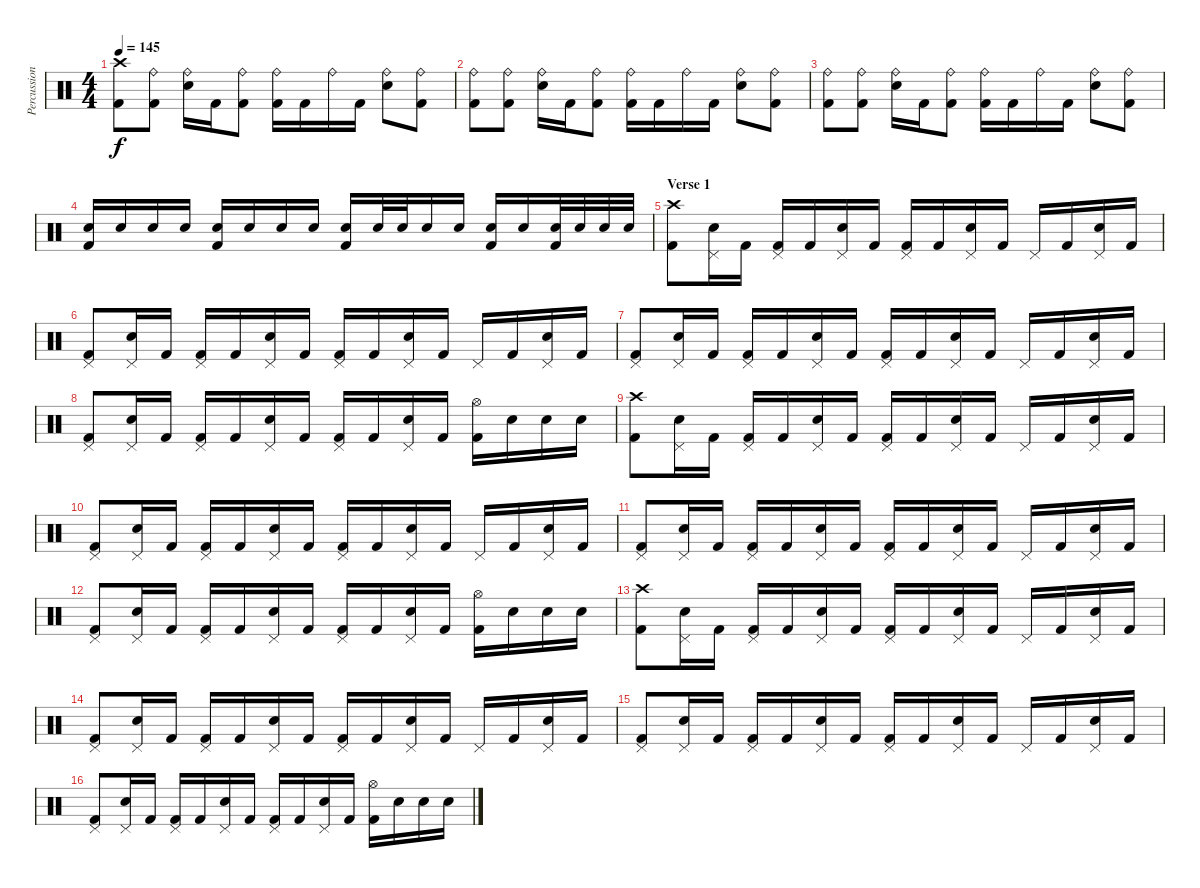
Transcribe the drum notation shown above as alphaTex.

\track ("Percussion" "Percussion") {instrument percussion}
\staff {score}
\articulation defaults
\ts (4 4)
\tempo 145
\clef neutral
\ks c
("Kick (hit) 2" "Crash high (hit)").8{dy f} ("Kick (hit) 2" "Ride (bell)").8 ("Electric Snare (hit)" "Ride (bell)").16 "Kick (hit) 2".16 ("Kick (hit) 2" "Ride (bell)").8 ("Kick (hit) 2" "Ride (bell)").16 "Kick (hit) 2".16 "Ride (bell)".16 "Kick (hit) 2".16 ("Electric Snare (hit)" "Ride (bell)").8 ("Kick (hit) 2" "Ride (bell)").8 |
("Kick (hit) 2" "Ride (bell)").8 ("Kick (hit) 2" "Ride (bell)").8 ("Electric Snare (hit)" "Ride (bell)").16 "Kick (hit) 2".16 ("Kick (hit) 2" "Ride (bell)").8 ("Kick (hit) 2" "Ride (bell)").16 "Kick (hit) 2".16 "Ride (bell)".16 "Kick (hit) 2".16 ("Electric Snare (hit)" "Ride (bell)").8 ("Kick (hit) 2" "Ride (bell)").8 |
("Kick (hit) 2" "Ride (bell)").8 ("Kick (hit) 2" "Ride (bell)").8 ("Electric Snare (hit)" "Ride (bell)").16 "Kick (hit) 2".16 ("Kick (hit) 2" "Ride (bell)").8 ("Kick (hit) 2" "Ride (bell)").16 "Kick (hit) 2".16 "Ride (bell)".16 "Kick (hit) 2".16 ("Electric Snare (hit)" "Ride (bell)").8 ("Kick (hit) 2" "Ride (bell)").8 |
("Electric Snare (hit)" "Kick (hit) 2").16 "Electric Snare (hit)".16 "Electric Snare (hit)".16 "Electric Snare (hit)".16 ("Electric Snare (hit)" "Kick (hit) 2").16 "Electric Snare (hit)".16 "Electric Snare (hit)".16 "Electric Snare (hit)".16 ("Electric Snare (hit)" "Kick (hit) 2").16 "Electric Snare (hit)".32 "Electric Snare (hit)".32 "Electric Snare (hit)".16 "Electric Snare (hit)".16 ("Electric Snare (hit)" "Kick (hit) 2").16 "Electric Snare (hit)".16 ("Electric Snare (hit)" "Kick (hit) 2").32 "Electric Snare (hit)".32 "Electric Snare (hit)".32 "Electric Snare (hit)".32 |
\section ("" "Verse 1")
("Kick (hit) 2" "Crash high (hit)").8 ("Electric Snare (hit)" "Pedal Hi-Hat (hit)").16 "Kick (hit) 2".16 ("Kick (hit) 2" "Pedal Hi-Hat (hit)").16 "Kick (hit) 2".16 ("Electric Snare (hit)" "Pedal Hi-Hat (hit)").16 "Kick (hit) 2".16 ("Kick (hit) 2" "Pedal Hi-Hat (hit)").16 "Kick (hit) 2".16 ("Electric Snare (hit)" "Pedal Hi-Hat (hit)").16 "Kick (hit) 2".16 "Pedal Hi-Hat (hit)".16 "Kick (hit) 2".16 ("Electric Snare (hit)" "Pedal Hi-Hat (hit)").16 "Kick (hit) 2".16 |
("Kick (hit) 2" "Pedal Hi-Hat (hit)").8 ("Electric Snare (hit)" "Pedal Hi-Hat (hit)").16 "Kick (hit) 2".16 ("Kick (hit) 2" "Pedal Hi-Hat (hit)").16 "Kick (hit) 2".16 ("Electric Snare (hit)" "Pedal Hi-Hat (hit)").16 "Kick (hit) 2".16 ("Kick (hit) 2" "Pedal Hi-Hat (hit)").16 "Kick (hit) 2".16 ("Electric Snare (hit)" "Pedal Hi-Hat (hit)").16 "Kick (hit) 2".16 "Pedal Hi-Hat (hit)".16 "Kick (hit) 2".16 ("Electric Snare (hit)" "Pedal Hi-Hat (hit)").16 "Kick (hit) 2".16 |
("Kick (hit) 2" "Pedal Hi-Hat (hit)").8 ("Electric Snare (hit)" "Pedal Hi-Hat (hit)").16 "Kick (hit) 2".16 ("Kick (hit) 2" "Pedal Hi-Hat (hit)").16 "Kick (hit) 2".16 ("Electric Snare (hit)" "Pedal Hi-Hat (hit)").16 "Kick (hit) 2".16 ("Kick (hit) 2" "Pedal Hi-Hat (hit)").16 "Kick (hit) 2".16 ("Electric Snare (hit)" "Pedal Hi-Hat (hit)").16 "Kick (hit) 2".16 "Pedal Hi-Hat (hit)".16 "Kick (hit) 2".16 ("Electric Snare (hit)" "Pedal Hi-Hat (hit)").16 "Kick (hit) 2".16 |
("Kick (hit) 2" "Pedal Hi-Hat (hit)").8 ("Electric Snare (hit)" "Pedal Hi-Hat (hit)").16 "Kick (hit) 2".16 ("Kick (hit) 2" "Pedal Hi-Hat (hit)").16 "Kick (hit) 2".16 ("Electric Snare (hit)" "Pedal Hi-Hat (hit)").16 "Kick (hit) 2".16 ("Kick (hit) 2" "Pedal Hi-Hat (hit)").16 "Kick (hit) 2".16 ("Electric Snare (hit)" "Pedal Hi-Hat (hit)").16 "Kick (hit) 2".16 ("Kick (hit) 2" "Hi-Hat (open)").16 "Electric Snare (hit)".16 "Electric Snare (hit)".16 "Electric Snare (hit)".16 |
("Kick (hit) 2" "Crash high (hit)").8 ("Electric Snare (hit)" "Pedal Hi-Hat (hit)").16 "Kick (hit) 2".16 ("Kick (hit) 2" "Pedal Hi-Hat (hit)").16 "Kick (hit) 2".16 ("Electric Snare (hit)" "Pedal Hi-Hat (hit)").16 "Kick (hit) 2".16 ("Kick (hit) 2" "Pedal Hi-Hat (hit)").16 "Kick (hit) 2".16 ("Electric Snare (hit)" "Pedal Hi-Hat (hit)").16 "Kick (hit) 2".16 "Pedal Hi-Hat (hit)".16 "Kick (hit) 2".16 ("Electric Snare (hit)" "Pedal Hi-Hat (hit)").16 "Kick (hit) 2".16 |
("Kick (hit) 2" "Pedal Hi-Hat (hit)").8 ("Electric Snare (hit)" "Pedal Hi-Hat (hit)").16 "Kick (hit) 2".16 ("Kick (hit) 2" "Pedal Hi-Hat (hit)").16 "Kick (hit) 2".16 ("Electric Snare (hit)" "Pedal Hi-Hat (hit)").16 "Kick (hit) 2".16 ("Kick (hit) 2" "Pedal Hi-Hat (hit)").16 "Kick (hit) 2".16 ("Electric Snare (hit)" "Pedal Hi-Hat (hit)").16 "Kick (hit) 2".16 "Pedal Hi-Hat (hit)".16 "Kick (hit) 2".16 ("Electric Snare (hit)" "Pedal Hi-Hat (hit)").16 "Kick (hit) 2".16 |
("Kick (hit) 2" "Pedal Hi-Hat (hit)").8 ("Electric Snare (hit)" "Pedal Hi-Hat (hit)").16 "Kick (hit) 2".16 ("Kick (hit) 2" "Pedal Hi-Hat (hit)").16 "Kick (hit) 2".16 ("Electric Snare (hit)" "Pedal Hi-Hat (hit)").16 "Kick (hit) 2".16 ("Kick (hit) 2" "Pedal Hi-Hat (hit)").16 "Kick (hit) 2".16 ("Electric Snare (hit)" "Pedal Hi-Hat (hit)").16 "Kick (hit) 2".16 "Pedal Hi-Hat (hit)".16 "Kick (hit) 2".16 ("Electric Snare (hit)" "Pedal Hi-Hat (hit)").16 "Kick (hit) 2".16 |
("Kick (hit) 2" "Pedal Hi-Hat (hit)").8 ("Electric Snare (hit)" "Pedal Hi-Hat (hit)").16 "Kick (hit) 2".16 ("Kick (hit) 2" "Pedal Hi-Hat (hit)").16 "Kick (hit) 2".16 ("Electric Snare (hit)" "Pedal Hi-Hat (hit)").16 "Kick (hit) 2".16 ("Kick (hit) 2" "Pedal Hi-Hat (hit)").16 "Kick (hit) 2".16 ("Electric Snare (hit)" "Pedal Hi-Hat (hit)").16 "Kick (hit) 2".16 ("Kick (hit) 2" "Hi-Hat (open)").16 "Electric Snare (hit)".16 "Electric Snare (hit)".16 "Electric Snare (hit)".16 |
("Kick (hit) 2" "Crash high (hit)").8 ("Electric Snare (hit)" "Pedal Hi-Hat (hit)").16 "Kick (hit) 2".16 ("Kick (hit) 2" "Pedal Hi-Hat (hit)").16 "Kick (hit) 2".16 ("Electric Snare (hit)" "Pedal Hi-Hat (hit)").16 "Kick (hit) 2".16 ("Kick (hit) 2" "Pedal Hi-Hat (hit)").16 "Kick (hit) 2".16 ("Electric Snare (hit)" "Pedal Hi-Hat (hit)").16 "Kick (hit) 2".16 "Pedal Hi-Hat (hit)".16 "Kick (hit) 2".16 ("Electric Snare (hit)" "Pedal Hi-Hat (hit)").16 "Kick (hit) 2".16 |
("Kick (hit) 2" "Pedal Hi-Hat (hit)").8 ("Electric Snare (hit)" "Pedal Hi-Hat (hit)").16 "Kick (hit) 2".16 ("Kick (hit) 2" "Pedal Hi-Hat (hit)").16 "Kick (hit) 2".16 ("Electric Snare (hit)" "Pedal Hi-Hat (hit)").16 "Kick (hit) 2".16 ("Kick (hit) 2" "Pedal Hi-Hat (hit)").16 "Kick (hit) 2".16 ("Electric Snare (hit)" "Pedal Hi-Hat (hit)").16 "Kick (hit) 2".16 "Pedal Hi-Hat (hit)".16 "Kick (hit) 2".16 ("Electric Snare (hit)" "Pedal Hi-Hat (hit)").16 "Kick (hit) 2".16 |
("Kick (hit) 2" "Pedal Hi-Hat (hit)").8 ("Electric Snare (hit)" "Pedal Hi-Hat (hit)").16 "Kick (hit) 2".16 ("Kick (hit) 2" "Pedal Hi-Hat (hit)").16 "Kick (hit) 2".16 ("Electric Snare (hit)" "Pedal Hi-Hat (hit)").16 "Kick (hit) 2".16 ("Kick (hit) 2" "Pedal Hi-Hat (hit)").16 "Kick (hit) 2".16 ("Electric Snare (hit)" "Pedal Hi-Hat (hit)").16 "Kick (hit) 2".16 "Pedal Hi-Hat (hit)".16 "Kick (hit) 2".16 ("Electric Snare (hit)" "Pedal Hi-Hat (hit)").16 "Kick (hit) 2".16 |
("Kick (hit) 2" "Pedal Hi-Hat (hit)").8 ("Electric Snare (hit)" "Pedal Hi-Hat (hit)").16 "Kick (hit) 2".16 ("Kick (hit) 2" "Pedal Hi-Hat (hit)").16 "Kick (hit) 2".16 ("Electric Snare (hit)" "Pedal Hi-Hat (hit)").16 "Kick (hit) 2".16 ("Kick (hit) 2" "Pedal Hi-Hat (hit)").16 "Kick (hit) 2".16 ("Electric Snare (hit)" "Pedal Hi-Hat (hit)").16 "Kick (hit) 2".16 ("Kick (hit) 2" "Hi-Hat (open)").16 "Electric Snare (hit)".16 "Electric Snare (hit)".16 "Electric Snare (hit)".16
